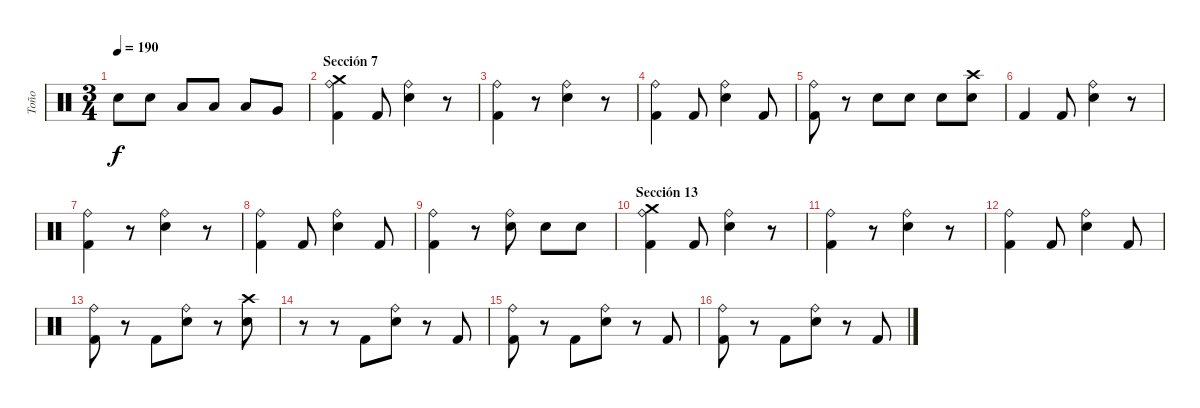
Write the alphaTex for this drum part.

\track ("Toño" "Toño") {instrument percussion}
\staff {score}
\articulation defaults
\ts (3 4)
\tempo 190
\clef neutral
\ks c "Electric Snare (hit)".8{dy f} "Electric Snare (hit)".8 "Low Tom (hit)".8 "Low Tom (hit)".8 "Low Tom (hit)".8 "Very Low Tom (hit)".8
|
\section ("" "Sección 7")
("Ride (bell)" "Crash medium (hit)" "Kick (hit) 2").4 "Kick (hit) 2".8 ("Ride (bell)" "Electric Snare (hit)").4 r.8 |
("Ride (bell)" "Kick (hit) 2").4 r.8 ("Ride (bell)" "Electric Snare (hit)").4 r.8 |
("Ride (bell)" "Kick (hit) 2").4 "Kick (hit) 2".8 ("Ride (bell)" "Electric Snare (hit)").4 "Kick (hit) 2".8 |
("Ride (bell)" "Kick (hit) 2").8 r.8 "Electric Snare (hit)".8 "Electric Snare (hit)".8 "Electric Snare (hit)".8 ("Crash high (hit)" "Electric Snare (hit)").8 |
"Kick (hit) 2".4 "Kick (hit) 2".8 ("Ride (bell)" "Electric Snare (hit)").4 r.8 |
("Ride (bell)" "Kick (hit) 2").4 r.8 ("Ride (bell)" "Electric Snare (hit)").4 r.8 |
("Ride (bell)" "Kick (hit) 2").4 "Kick (hit) 2".8 ("Ride (bell)" "Electric Snare (hit)").4 "Kick (hit) 2".8 |
("Ride (bell)" "Kick (hit) 2").4 r.8 ("Ride (bell)" "Electric Snare (hit)").8 "Electric Snare (hit)".8 "Electric Snare (hit)".8 |
\section ("" "Sección 13")
("Ride (bell)" "Crash medium (hit)" "Kick (hit) 2").4 "Kick (hit) 2".8 ("Ride (bell)" "Electric Snare (hit)").4 r.8 |
("Ride (bell)" "Kick (hit) 2").4 r.8 ("Ride (bell)" "Electric Snare (hit)").4 r.8 |
("Ride (bell)" "Kick (hit) 2").4 "Kick (hit) 2".8 ("Ride (bell)" "Electric Snare (hit)").4 "Kick (hit) 2".8 |
("Ride (bell)" "Kick (hit) 2").8 r.8 "Kick (hit) 2".8 ("Ride (bell)" "Electric Snare (hit)").8 r.8 ("Crash high (hit)" "Electric Snare (hit)").8 |
r.8 r.8 "Kick (hit) 2".8 ("Ride (bell)" "Electric Snare (hit)").8 r.8 "Kick (hit) 2".8 |
("Ride (bell)" "Kick (hit) 2").8 r.8 "Kick (hit) 2".8 ("Ride (bell)" "Electric Snare (hit)").8 r.8 "Kick (hit) 2".8 |
("Ride (bell)" "Kick (hit) 2").8 r.8 "Kick (hit) 2".8 ("Ride (bell)" "Electric Snare (hit)").8 r.8 "Kick (hit) 2".8
